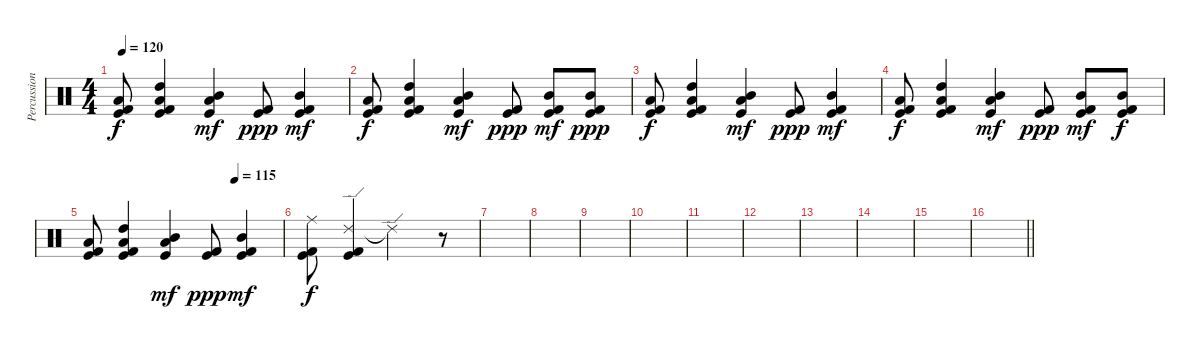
\track ("Percussion" "Percussion") {instrument percussion}
\staff {score}
\articulation defaults
\ts (4 4)
\tempo 120
\clef neutral
\ks c
("Kick (hit)" "Kick (hit) 2" "Low Tom (hit)").8{dy f} ("High Tom (hit)" "Kick (hit)" "Kick (hit) 2" "Low Tom (hit)").4 ("Mid Tom (hit)" "Low Floor Tom (hit)" "Kick (hit)").4{dy mf} ("Kick (hit) 2" "Kick (hit)").8{dy ppp} ("Mid Tom (hit)" "Kick (hit) 2" "Kick (hit)").4{dy mf} |
("Kick (hit)" "Kick (hit) 2" "Low Tom (hit)").8{dy f} ("High Tom (hit)" "Kick (hit)" "Kick (hit) 2" "Low Tom (hit)").4 ("Mid Tom (hit)" "Low Floor Tom (hit)" "Kick (hit)").4{dy mf} ("Kick (hit) 2" "Kick (hit)").8{dy ppp} ("Mid Tom (hit)" "Kick (hit) 2" "Kick (hit)").8{dy mf} ("Mid Tom (hit)" "Kick (hit)" "Kick (hit) 2").8{dy ppp} |
("Kick (hit)" "Kick (hit) 2" "Low Tom (hit)").8{dy f} ("High Tom (hit)" "Kick (hit)" "Kick (hit) 2" "Low Tom (hit)").4 ("Mid Tom (hit)" "Low Floor Tom (hit)" "Kick (hit)").4{dy mf} ("Kick (hit) 2" "Kick (hit)").8{dy ppp} ("Mid Tom (hit)" "Kick (hit) 2" "Kick (hit)").4{dy mf} |
("Kick (hit)" "Kick (hit) 2" "Low Tom (hit)").8{dy f} ("High Tom (hit)" "Kick (hit)" "Kick (hit) 2" "Low Tom (hit)").4 ("Mid Tom (hit)" "Low Floor Tom (hit)" "Kick (hit)").4{dy mf} ("Kick (hit) 2" "Kick (hit)").8{dy ppp} ("Mid Tom (hit)" "Kick (hit) 2" "Kick (hit)").8{dy mf} ("Mid Tom (hit)" "Kick (hit) 2" "Kick (hit)").8{dy f} |
\tempo (115 0.75)
("Kick (hit)" "Kick (hit) 2" "Low Tom (hit)").8 ("High Tom (hit)" "Kick (hit)" "Kick (hit) 2" "Low Tom (hit)").4 ("Mid Tom (hit)" "Low Floor Tom (hit)" "Kick (hit)").4{dy mf} ("Kick (hit) 2" "Kick (hit)").8{dy ppp} ("Mid Tom (hit)" "Kick (hit) 2" "Kick (hit)").4{dy mf} |
("Ride (middle)" "Kick (hit) 2" "Kick (hit)").8{dy f} ("Ride (edge) 2" "Kick (hit)" "Kick (hit) 2").4 "Ride (edge) 2"{t}.2 r.8 |
|
|
|
|
|
|
|
|
|
\barLineRight lightlight
